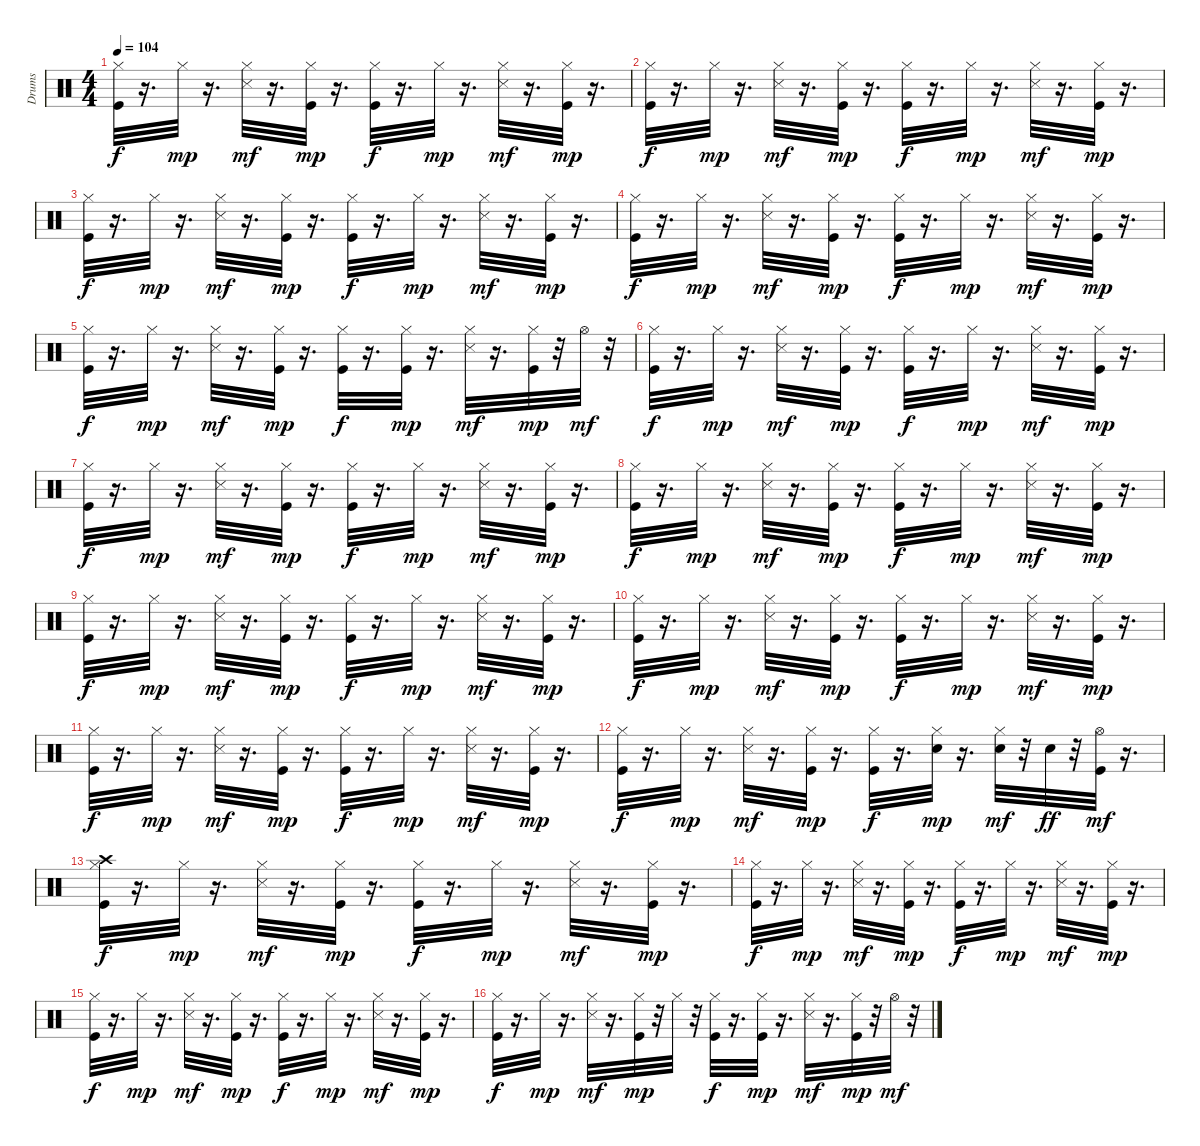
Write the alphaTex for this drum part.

\track ("Drums" "Drums") {instrument percussion}
\staff {score}
\articulation defaults
\ts (4 4)
\tempo 104
\clef neutral
\ks c
("Kick (hit)" "Hi-Hat (closed)").32{dy f} r.16{d} "Hi-Hat (closed)".32{dy mp} r.16{d} ("Hi-Hat (closed)" "Snare (side stick) 3").32{dy mf} r.16{d} ("Kick (hit)" "Hi-Hat (closed)").32{dy mp} r.16{d} ("Kick (hit)" "Hi-Hat (closed)").32{dy f} r.16{d} "Hi-Hat (closed)".32{dy mp} r.16{d} ("Hi-Hat (closed)" "Snare (side stick) 3").32{dy mf} r.16{d} ("Kick (hit)" "Hi-Hat (closed)").32{dy mp} r.16{d} |
("Kick (hit)" "Hi-Hat (closed)").32{dy f} r.16{d} "Hi-Hat (closed)".32{dy mp} r.16{d} ("Hi-Hat (closed)" "Snare (side stick) 3").32{dy mf} r.16{d} ("Kick (hit)" "Hi-Hat (closed)").32{dy mp} r.16{d} ("Kick (hit)" "Hi-Hat (closed)").32{dy f} r.16{d} "Hi-Hat (closed)".32{dy mp} r.16{d} ("Hi-Hat (closed)" "Snare (side stick) 3").32{dy mf} r.16{d} ("Kick (hit)" "Hi-Hat (closed)").32{dy mp} r.16{d} |
("Kick (hit)" "Hi-Hat (closed)").32{dy f} r.16{d} "Hi-Hat (closed)".32{dy mp} r.16{d} ("Hi-Hat (closed)" "Snare (side stick) 3").32{dy mf} r.16{d} ("Kick (hit)" "Hi-Hat (closed)").32{dy mp} r.16{d} ("Kick (hit)" "Hi-Hat (closed)").32{dy f} r.16{d} "Hi-Hat (closed)".32{dy mp} r.16{d} ("Hi-Hat (closed)" "Snare (side stick) 3").32{dy mf} r.16{d} ("Kick (hit)" "Hi-Hat (closed)").32{dy mp} r.16{d} |
("Kick (hit)" "Hi-Hat (closed)").32{dy f} r.16{d} "Hi-Hat (closed)".32{dy mp} r.16{d} ("Hi-Hat (closed)" "Snare (side stick) 3").32{dy mf} r.16{d} ("Kick (hit)" "Hi-Hat (closed)").32{dy mp} r.16{d} ("Kick (hit)" "Hi-Hat (closed)").32{dy f} r.16{d} "Hi-Hat (closed)".32{dy mp} r.16{d} ("Hi-Hat (closed)" "Snare (side stick) 3").32{dy mf} r.16{d} ("Kick (hit)" "Hi-Hat (closed)").32{dy mp} r.16{d} |
("Kick (hit)" "Hi-Hat (closed)").32{dy f} r.16{d} "Hi-Hat (closed)".32{dy mp} r.16{d} ("Hi-Hat (closed)" "Snare (side stick) 3").32{dy mf} r.16{d} ("Kick (hit)" "Hi-Hat (closed)").32{dy mp} r.16{d} ("Kick (hit)" "Hi-Hat (closed)").32{dy f} r.16{d} ("Kick (hit)" "Hi-Hat (closed)").32{dy mp} r.16{d} ("Hi-Hat (closed)" "Snare (side stick) 3").32{dy mf} r.16{d} ("Kick (hit)" "Hi-Hat (closed)").32{dy mp} r.32 "Hi-Hat (open)".32{dy mf} r.32 |
("Kick (hit)" "Hi-Hat (closed)").32{dy f} r.16{d} "Hi-Hat (closed)".32{dy mp} r.16{d} ("Hi-Hat (closed)" "Snare (side stick) 3").32{dy mf} r.16{d} ("Kick (hit)" "Hi-Hat (closed)").32{dy mp} r.16{d} ("Kick (hit)" "Hi-Hat (closed)").32{dy f} r.16{d} "Hi-Hat (closed)".32{dy mp} r.16{d} ("Hi-Hat (closed)" "Snare (side stick) 3").32{dy mf} r.16{d} ("Kick (hit)" "Hi-Hat (closed)").32{dy mp} r.16{d} |
("Kick (hit)" "Hi-Hat (closed)").32{dy f} r.16{d} "Hi-Hat (closed)".32{dy mp} r.16{d} ("Hi-Hat (closed)" "Snare (side stick) 3").32{dy mf} r.16{d} ("Kick (hit)" "Hi-Hat (closed)").32{dy mp} r.16{d} ("Kick (hit)" "Hi-Hat (closed)").32{dy f} r.16{d} "Hi-Hat (closed)".32{dy mp} r.16{d} ("Hi-Hat (closed)" "Snare (side stick) 3").32{dy mf} r.16{d} ("Kick (hit)" "Hi-Hat (closed)").32{dy mp} r.16{d} |
("Kick (hit)" "Hi-Hat (closed)").32{dy f} r.16{d} "Hi-Hat (closed)".32{dy mp} r.16{d} ("Hi-Hat (closed)" "Snare (side stick) 3").32{dy mf} r.16{d} ("Kick (hit)" "Hi-Hat (closed)").32{dy mp} r.16{d} ("Kick (hit)" "Hi-Hat (closed)").32{dy f} r.16{d} "Hi-Hat (closed)".32{dy mp} r.16{d} ("Hi-Hat (closed)" "Snare (side stick) 3").32{dy mf} r.16{d} ("Kick (hit)" "Hi-Hat (closed)").32{dy mp} r.16{d} |
("Kick (hit)" "Hi-Hat (closed)").32{dy f} r.16{d} "Hi-Hat (closed)".32{dy mp} r.16{d} ("Hi-Hat (closed)" "Snare (side stick) 3").32{dy mf} r.16{d} ("Kick (hit)" "Hi-Hat (closed)").32{dy mp} r.16{d} ("Kick (hit)" "Hi-Hat (closed)").32{dy f} r.16{d} "Hi-Hat (closed)".32{dy mp} r.16{d} ("Hi-Hat (closed)" "Snare (side stick) 3").32{dy mf} r.16{d} ("Kick (hit)" "Hi-Hat (closed)").32{dy mp} r.16{d} |
("Kick (hit)" "Hi-Hat (closed)").32{dy f} r.16{d} "Hi-Hat (closed)".32{dy mp} r.16{d} ("Hi-Hat (closed)" "Snare (side stick) 3").32{dy mf} r.16{d} ("Kick (hit)" "Hi-Hat (closed)").32{dy mp} r.16{d} ("Kick (hit)" "Hi-Hat (closed)").32{dy f} r.16{d} "Hi-Hat (closed)".32{dy mp} r.16{d} ("Hi-Hat (closed)" "Snare (side stick) 3").32{dy mf} r.16{d} ("Kick (hit)" "Hi-Hat (closed)").32{dy mp} r.16{d} |
("Kick (hit)" "Hi-Hat (closed)").32{dy f} r.16{d} "Hi-Hat (closed)".32{dy mp} r.16{d} ("Hi-Hat (closed)" "Snare (side stick) 3").32{dy mf} r.16{d} ("Kick (hit)" "Hi-Hat (closed)").32{dy mp} r.16{d} ("Kick (hit)" "Hi-Hat (closed)").32{dy f} r.16{d} "Hi-Hat (closed)".32{dy mp} r.16{d} ("Hi-Hat (closed)" "Snare (side stick) 3").32{dy mf} r.16{d} ("Kick (hit)" "Hi-Hat (closed)").32{dy mp} r.16{d} |
("Kick (hit)" "Hi-Hat (closed)").32{dy f} r.16{d} "Hi-Hat (closed)".32{dy mp} r.16{d} ("Hi-Hat (closed)" "Snare (side stick) 3").32{dy mf} r.16{d} ("Kick (hit)" "Hi-Hat (closed)").32{dy mp} r.16{d} ("Kick (hit)" "Hi-Hat (closed)").32{dy f} r.16{d} ("Snare (hit) 2" "Hi-Hat (closed)").32{dy mp} r.16{d} ("Snare (hit) 2" "Hi-Hat (closed)").32{dy mf} r.32 "Snare (hit) 2".32{dy ff} r.32 ("Kick (hit)" "Hi-Hat (open)").32{dy mf} r.16{d} |
("Kick (hit)" "Hi-Hat (closed)" "Crash high (hit)").32{dy f} r.16{d} "Hi-Hat (closed)".32{dy mp} r.16{d} ("Hi-Hat (closed)" "Snare (side stick) 3").32{dy mf} r.16{d} ("Kick (hit)" "Hi-Hat (closed)").32{dy mp} r.16{d} ("Kick (hit)" "Hi-Hat (closed)").32{dy f} r.16{d} "Hi-Hat (closed)".32{dy mp} r.16{d} ("Hi-Hat (closed)" "Snare (side stick) 3").32{dy mf} r.16{d} ("Kick (hit)" "Hi-Hat (closed)").32{dy mp} r.16{d} |
("Kick (hit)" "Hi-Hat (closed)").32{dy f} r.16{d} "Hi-Hat (closed)".32{dy mp} r.16{d} ("Hi-Hat (closed)" "Snare (side stick) 3").32{dy mf} r.16{d} ("Kick (hit)" "Hi-Hat (closed)").32{dy mp} r.16{d} ("Kick (hit)" "Hi-Hat (closed)").32{dy f} r.16{d} "Hi-Hat (closed)".32{dy mp} r.16{d} ("Hi-Hat (closed)" "Snare (side stick) 3").32{dy mf} r.16{d} ("Kick (hit)" "Hi-Hat (closed)").32{dy mp} r.16{d} |
("Kick (hit)" "Hi-Hat (closed)").32{dy f} r.16{d} "Hi-Hat (closed)".32{dy mp} r.16{d} ("Hi-Hat (closed)" "Snare (side stick) 3").32{dy mf} r.16{d} ("Kick (hit)" "Hi-Hat (closed)").32{dy mp} r.16{d} ("Kick (hit)" "Hi-Hat (closed)").32{dy f} r.16{d} "Hi-Hat (closed)".32{dy mp} r.16{d} ("Hi-Hat (closed)" "Snare (side stick) 3").32{dy mf} r.16{d} ("Kick (hit)" "Hi-Hat (closed)").32{dy mp} r.16{d} |
("Kick (hit)" "Hi-Hat (closed)").32{dy f} r.16{d} "Hi-Hat (closed)".32{dy mp} r.16{d} ("Hi-Hat (closed)" "Snare (side stick) 3").32{dy mf} r.16{d} ("Kick (hit)" "Hi-Hat (closed)").32{dy mp} r.32 "Hi-Hat (closed)".32 r.32 ("Kick (hit)" "Hi-Hat (closed)").32{dy f} r.16{d} ("Kick (hit)" "Hi-Hat (closed)").32{dy mp} r.16{d} ("Hi-Hat (closed)" "Snare (side stick) 3").32{dy mf} r.16{d} ("Kick (hit)" "Hi-Hat (closed)").32{dy mp} r.32 "Hi-Hat (open)".32{dy mf} r.32
